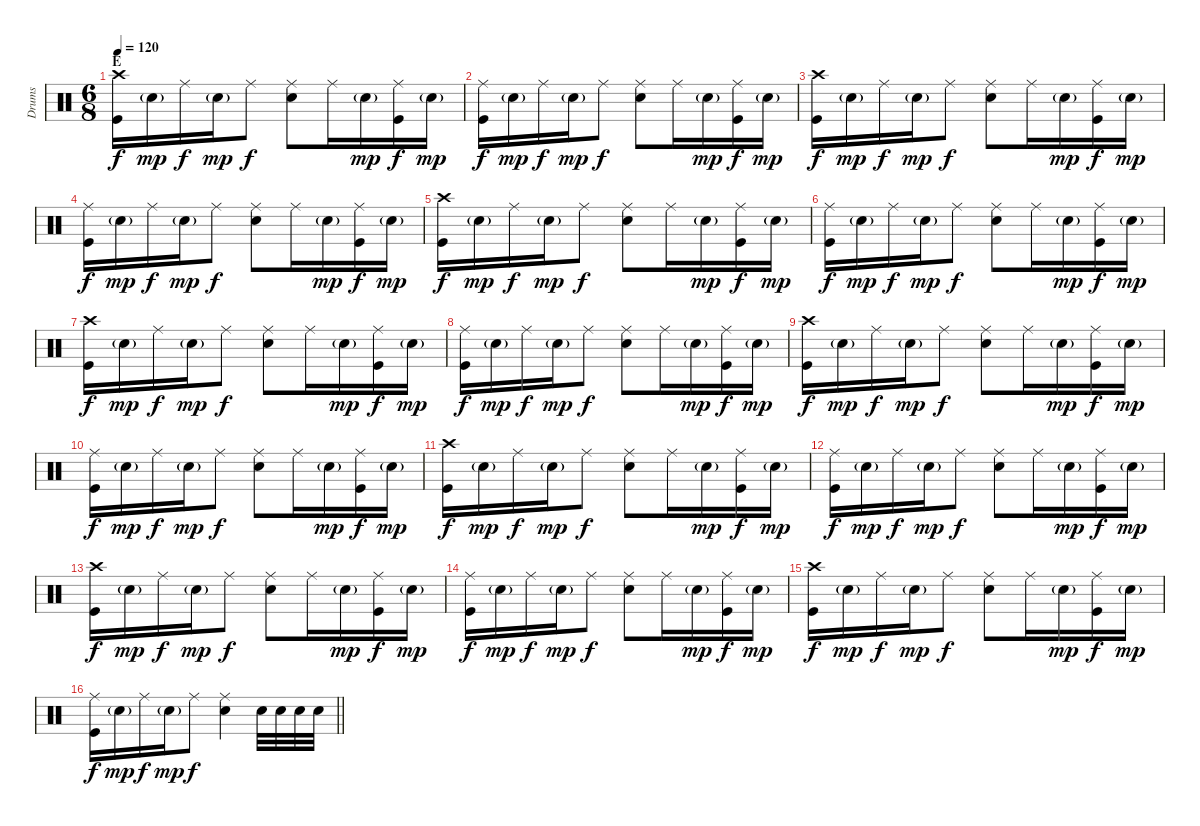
\track ("Drums" "Drums") {instrument percussion}
\staff {score}
\articulation defaults
\ts (6 8)
\section ("" "E")
\tempo 120
\clef neutral
\ks c
("Kick (hit)" "Crash high (hit)").16{dy f} "Electric Snare (hit)"{g}.16{dy mp} "Ride (middle)".16{dy f} "Electric Snare (hit)"{g}.16{dy mp} "Ride (middle)".8{dy f} ("Electric Snare (hit)" "Ride (middle)").8 "Ride (middle)".16 "Electric Snare (hit)"{g}.16{dy mp} ("Kick (hit)" "Ride (middle)").16{dy f} "Electric Snare (hit)"{g}.16{dy mp} |
("Kick (hit)" "Ride (middle)").16{dy f} "Electric Snare (hit)"{g}.16{dy mp} "Ride (middle)".16{dy f} "Electric Snare (hit)"{g}.16{dy mp} "Ride (middle)".8{dy f} ("Electric Snare (hit)" "Ride (middle)").8 "Ride (middle)".16 "Electric Snare (hit)"{g}.16{dy mp} ("Kick (hit)" "Ride (middle)").16{dy f} "Electric Snare (hit)"{g}.16{dy mp} |
("Kick (hit)" "Crash high (hit)").16{dy f} "Electric Snare (hit)"{g}.16{dy mp} "Ride (middle)".16{dy f} "Electric Snare (hit)"{g}.16{dy mp} "Ride (middle)".8{dy f} ("Electric Snare (hit)" "Ride (middle)").8 "Ride (middle)".16 "Electric Snare (hit)"{g}.16{dy mp} ("Kick (hit)" "Ride (middle)").16{dy f} "Electric Snare (hit)"{g}.16{dy mp} |
("Kick (hit)" "Ride (middle)").16{dy f} "Electric Snare (hit)"{g}.16{dy mp} "Ride (middle)".16{dy f} "Electric Snare (hit)"{g}.16{dy mp} "Ride (middle)".8{dy f} ("Electric Snare (hit)" "Ride (middle)").8 "Ride (middle)".16 "Electric Snare (hit)"{g}.16{dy mp} ("Kick (hit)" "Ride (middle)").16{dy f} "Electric Snare (hit)"{g}.16{dy mp} |
("Kick (hit)" "Crash high (hit)").16{dy f} "Electric Snare (hit)"{g}.16{dy mp} "Ride (middle)".16{dy f} "Electric Snare (hit)"{g}.16{dy mp} "Ride (middle)".8{dy f} ("Electric Snare (hit)" "Ride (middle)").8 "Ride (middle)".16 "Electric Snare (hit)"{g}.16{dy mp} ("Kick (hit)" "Ride (middle)").16{dy f} "Electric Snare (hit)"{g}.16{dy mp} |
("Kick (hit)" "Ride (middle)").16{dy f} "Electric Snare (hit)"{g}.16{dy mp} "Ride (middle)".16{dy f} "Electric Snare (hit)"{g}.16{dy mp} "Ride (middle)".8{dy f} ("Electric Snare (hit)" "Ride (middle)").8 "Ride (middle)".16 "Electric Snare (hit)"{g}.16{dy mp} ("Kick (hit)" "Ride (middle)").16{dy f} "Electric Snare (hit)"{g}.16{dy mp} |
("Kick (hit)" "Crash high (hit)").16{dy f} "Electric Snare (hit)"{g}.16{dy mp} "Ride (middle)".16{dy f} "Electric Snare (hit)"{g}.16{dy mp} "Ride (middle)".8{dy f} ("Electric Snare (hit)" "Ride (middle)").8 "Ride (middle)".16 "Electric Snare (hit)"{g}.16{dy mp} ("Kick (hit)" "Ride (middle)").16{dy f} "Electric Snare (hit)"{g}.16{dy mp} |
("Kick (hit)" "Ride (middle)").16{dy f} "Electric Snare (hit)"{g}.16{dy mp} "Ride (middle)".16{dy f} "Electric Snare (hit)"{g}.16{dy mp} "Ride (middle)".8{dy f} ("Electric Snare (hit)" "Ride (middle)").8 "Ride (middle)".16 "Electric Snare (hit)"{g}.16{dy mp} ("Kick (hit)" "Ride (middle)").16{dy f} "Electric Snare (hit)"{g}.16{dy mp} |
("Kick (hit)" "Crash high (hit)").16{dy f} "Electric Snare (hit)"{g}.16{dy mp} "Ride (middle)".16{dy f} "Electric Snare (hit)"{g}.16{dy mp} "Ride (middle)".8{dy f} ("Electric Snare (hit)" "Ride (middle)").8 "Ride (middle)".16 "Electric Snare (hit)"{g}.16{dy mp} ("Kick (hit)" "Ride (middle)").16{dy f} "Electric Snare (hit)"{g}.16{dy mp} |
("Kick (hit)" "Ride (middle)").16{dy f} "Electric Snare (hit)"{g}.16{dy mp} "Ride (middle)".16{dy f} "Electric Snare (hit)"{g}.16{dy mp} "Ride (middle)".8{dy f} ("Electric Snare (hit)" "Ride (middle)").8 "Ride (middle)".16 "Electric Snare (hit)"{g}.16{dy mp} ("Kick (hit)" "Ride (middle)").16{dy f} "Electric Snare (hit)"{g}.16{dy mp} |
("Kick (hit)" "Crash high (hit)").16{dy f} "Electric Snare (hit)"{g}.16{dy mp} "Ride (middle)".16{dy f} "Electric Snare (hit)"{g}.16{dy mp} "Ride (middle)".8{dy f} ("Electric Snare (hit)" "Ride (middle)").8 "Ride (middle)".16 "Electric Snare (hit)"{g}.16{dy mp} ("Kick (hit)" "Ride (middle)").16{dy f} "Electric Snare (hit)"{g}.16{dy mp} |
("Kick (hit)" "Ride (middle)").16{dy f} "Electric Snare (hit)"{g}.16{dy mp} "Ride (middle)".16{dy f} "Electric Snare (hit)"{g}.16{dy mp} "Ride (middle)".8{dy f} ("Electric Snare (hit)" "Ride (middle)").8 "Ride (middle)".16 "Electric Snare (hit)"{g}.16{dy mp} ("Kick (hit)" "Ride (middle)").16{dy f} "Electric Snare (hit)"{g}.16{dy mp} |
("Kick (hit)" "Crash high (hit)").16{dy f} "Electric Snare (hit)"{g}.16{dy mp} "Ride (middle)".16{dy f} "Electric Snare (hit)"{g}.16{dy mp} "Ride (middle)".8{dy f} ("Electric Snare (hit)" "Ride (middle)").8 "Ride (middle)".16 "Electric Snare (hit)"{g}.16{dy mp} ("Kick (hit)" "Ride (middle)").16{dy f} "Electric Snare (hit)"{g}.16{dy mp} |
("Kick (hit)" "Ride (middle)").16{dy f} "Electric Snare (hit)"{g}.16{dy mp} "Ride (middle)".16{dy f} "Electric Snare (hit)"{g}.16{dy mp} "Ride (middle)".8{dy f} ("Electric Snare (hit)" "Ride (middle)").8 "Ride (middle)".16 "Electric Snare (hit)"{g}.16{dy mp} ("Kick (hit)" "Ride (middle)").16{dy f} "Electric Snare (hit)"{g}.16{dy mp} |
("Kick (hit)" "Crash high (hit)").16{dy f} "Electric Snare (hit)"{g}.16{dy mp} "Ride (middle)".16{dy f} "Electric Snare (hit)"{g}.16{dy mp} "Ride (middle)".8{dy f} ("Electric Snare (hit)" "Ride (middle)").8 "Ride (middle)".16 "Electric Snare (hit)"{g}.16{dy mp} ("Kick (hit)" "Ride (middle)").16{dy f} "Electric Snare (hit)"{g}.16{dy mp} |
\barLineRight lightlight
("Kick (hit)" "Ride (middle)").16{dy f} "Electric Snare (hit)"{g}.16{dy mp} "Ride (middle)".16{dy f} "Electric Snare (hit)"{g}.16{dy mp} "Ride (middle)".8{dy f} ("Electric Snare (hit)" "Ride (middle)").4 "Electric Snare (hit)".32 "Electric Snare (hit)".32 "Electric Snare (hit)".32 "Electric Snare (hit)".32
